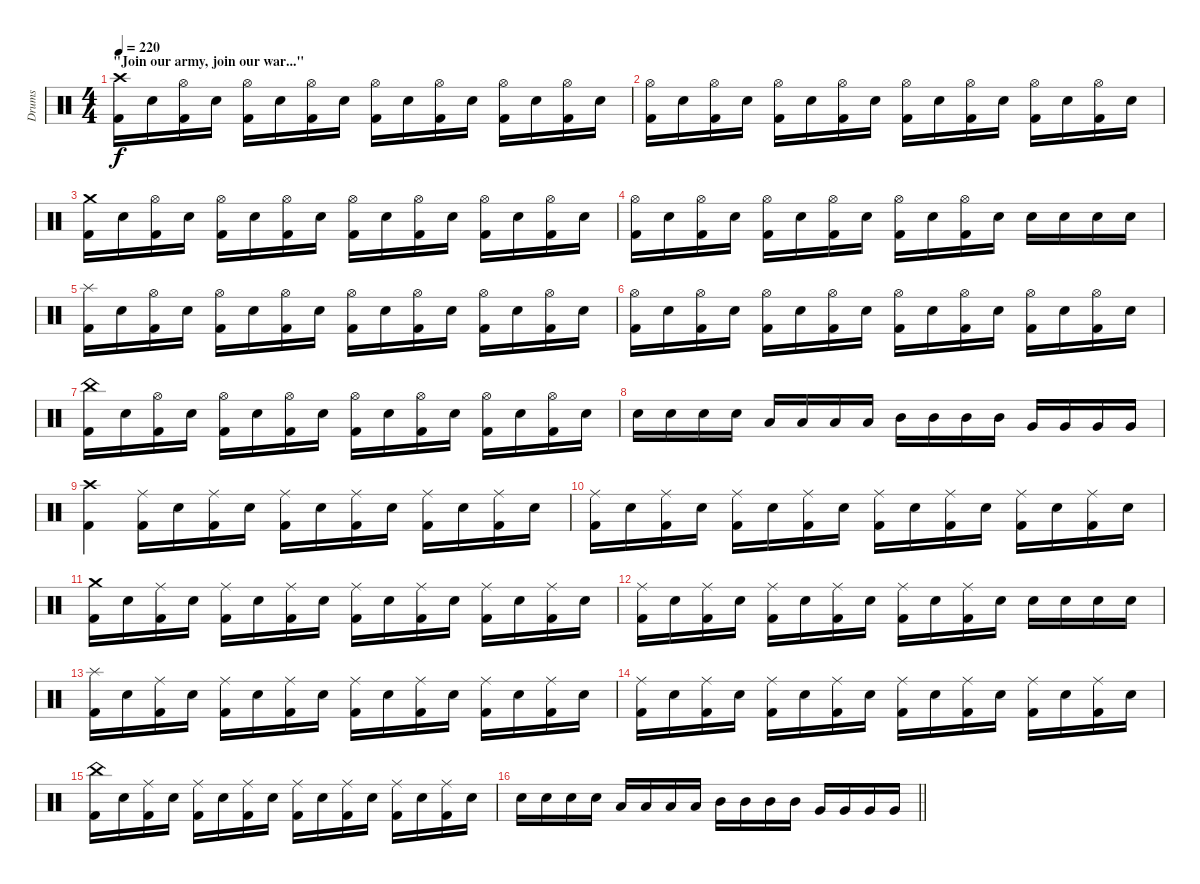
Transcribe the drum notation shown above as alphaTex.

\track ("Drums" "Drums") {instrument percussion}
\staff {score}
\articulation defaults
\ts (4 4)
\section ("" "\"Join our army, join our war...\"")
\tempo 220
\clef neutral
\ks c
("Crash high (hit)" "Kick (hit) 2").16{dy f} "Snare (hit) 2".16 ("Hi-Hat (open)" "Kick (hit) 2").16 "Snare (hit) 2".16 ("Hi-Hat (open)" "Kick (hit) 2").16 "Snare (hit) 2".16 ("Hi-Hat (open)" "Kick (hit) 2").16 "Snare (hit) 2".16 ("Hi-Hat (open)" "Kick (hit) 2").16 "Snare (hit) 2".16 ("Hi-Hat (open)" "Kick (hit) 2").16 "Snare (hit) 2".16 ("Hi-Hat (open)" "Kick (hit) 2").16 "Snare (hit) 2".16 ("Hi-Hat (open)" "Kick (hit) 2").16 "Snare (hit) 2".16 |
("Hi-Hat (open)" "Kick (hit) 2").16 "Snare (hit) 2".16 ("Hi-Hat (open)" "Kick (hit) 2").16 "Snare (hit) 2".16 ("Hi-Hat (open)" "Kick (hit) 2").16 "Snare (hit) 2".16 ("Hi-Hat (open)" "Kick (hit) 2").16 "Snare (hit) 2".16 ("Hi-Hat (open)" "Kick (hit) 2").16 "Snare (hit) 2".16 ("Hi-Hat (open)" "Kick (hit) 2").16 "Snare (hit) 2".16 ("Hi-Hat (open)" "Kick (hit) 2").16 "Snare (hit) 2".16 ("Hi-Hat (open)" "Kick (hit) 2").16 "Snare (hit) 2".16 |
("Crash medium (hit)" "Kick (hit) 2").16 "Snare (hit) 2".16 ("Hi-Hat (open)" "Kick (hit) 2").16 "Snare (hit) 2".16 ("Hi-Hat (open)" "Kick (hit) 2").16 "Snare (hit) 2".16 ("Hi-Hat (open)" "Kick (hit) 2").16 "Snare (hit) 2".16 ("Hi-Hat (open)" "Kick (hit) 2").16 "Snare (hit) 2".16 ("Hi-Hat (open)" "Kick (hit) 2").16 "Snare (hit) 2".16 ("Hi-Hat (open)" "Kick (hit) 2").16 "Snare (hit) 2".16 ("Hi-Hat (open)" "Kick (hit) 2").16 "Snare (hit) 2".16 |
("Hi-Hat (open)" "Kick (hit) 2").16 "Snare (hit) 2".16 ("Hi-Hat (open)" "Kick (hit) 2").16 "Snare (hit) 2".16 ("Hi-Hat (open)" "Kick (hit) 2").16 "Snare (hit) 2".16 ("Hi-Hat (open)" "Kick (hit) 2").16 "Snare (hit) 2".16 ("Hi-Hat (open)" "Kick (hit) 2").16 "Snare (hit) 2".16 ("Hi-Hat (open)" "Kick (hit) 2").16 "Snare (hit) 2".16 "Snare (hit) 2".16 "Snare (hit) 2".16 "Snare (hit) 2".16 "Snare (hit) 2".16 |
("Splash (hit)" "Kick (hit) 2").16 "Snare (hit) 2".16 ("Hi-Hat (open)" "Kick (hit) 2").16 "Snare (hit) 2".16 ("Hi-Hat (open)" "Kick (hit) 2").16 "Snare (hit) 2".16 ("Hi-Hat (open)" "Kick (hit) 2").16 "Snare (hit) 2".16 ("Hi-Hat (open)" "Kick (hit) 2").16 "Snare (hit) 2".16 ("Hi-Hat (open)" "Kick (hit) 2").16 "Snare (hit) 2".16 ("Hi-Hat (open)" "Kick (hit) 2").16 "Snare (hit) 2".16 ("Hi-Hat (open)" "Kick (hit) 2").16 "Snare (hit) 2".16 |
("Hi-Hat (open)" "Kick (hit) 2").16 "Snare (hit) 2".16 ("Hi-Hat (open)" "Kick (hit) 2").16 "Snare (hit) 2".16 ("Hi-Hat (open)" "Kick (hit) 2").16 "Snare (hit) 2".16 ("Hi-Hat (open)" "Kick (hit) 2").16 "Snare (hit) 2".16 ("Hi-Hat (open)" "Kick (hit) 2").16 "Snare (hit) 2".16 ("Hi-Hat (open)" "Kick (hit) 2").16 "Snare (hit) 2".16 ("Hi-Hat (open)" "Kick (hit) 2").16 "Snare (hit) 2".16 ("Hi-Hat (open)" "Kick (hit) 2").16 "Snare (hit) 2".16 |
("China (hit)" "Kick (hit) 2").16 "Snare (hit) 2".16 ("Hi-Hat (open)" "Kick (hit) 2").16 "Snare (hit) 2".16 ("Hi-Hat (open)" "Kick (hit) 2").16 "Snare (hit) 2".16 ("Hi-Hat (open)" "Kick (hit) 2").16 "Snare (hit) 2".16 ("Hi-Hat (open)" "Kick (hit) 2").16 "Snare (hit) 2".16 ("Hi-Hat (open)" "Kick (hit) 2").16 "Snare (hit) 2".16 ("Hi-Hat (open)" "Kick (hit) 2").16 "Snare (hit) 2".16 ("Hi-Hat (open)" "Kick (hit) 2").16 "Snare (hit) 2".16 |
"Snare (hit) 2".16 "Snare (hit) 2".16 "Snare (hit) 2".16 "Snare (hit) 2".16 "Low Tom (hit)".16 "Low Tom (hit)".16 "Low Tom (hit)".16 "Low Tom (hit)".16 "Mid Tom (hit)".16 "Mid Tom (hit)".16 "Mid Tom (hit)".16 "Mid Tom (hit)".16 "Very Low Tom (hit)".16 "Very Low Tom (hit)".16 "Very Low Tom (hit)".16 "Very Low Tom (hit)".16 |
("Crash high (hit)" "Kick (hit) 2").4 ("Ride (middle)" "Kick (hit) 2").16 "Snare (hit) 2".16 ("Ride (middle)" "Kick (hit) 2").16 "Snare (hit) 2".16 ("Ride (middle)" "Kick (hit) 2").16 "Snare (hit) 2".16 ("Ride (middle)" "Kick (hit) 2").16 "Snare (hit) 2".16 ("Ride (middle)" "Kick (hit) 2").16 "Snare (hit) 2".16 ("Ride (middle)" "Kick (hit) 2").16 "Snare (hit) 2".16 |
("Ride (middle)" "Kick (hit) 2").16 "Snare (hit) 2".16 ("Ride (middle)" "Kick (hit) 2").16 "Snare (hit) 2".16 ("Ride (middle)" "Kick (hit) 2").16 "Snare (hit) 2".16 ("Ride (middle)" "Kick (hit) 2").16 "Snare (hit) 2".16 ("Ride (middle)" "Kick (hit) 2").16 "Snare (hit) 2".16 ("Ride (middle)" "Kick (hit) 2").16 "Snare (hit) 2".16 ("Ride (middle)" "Kick (hit) 2").16 "Snare (hit) 2".16 ("Ride (middle)" "Kick (hit) 2").16 "Snare (hit) 2".16 |
("Crash medium (hit)" "Kick (hit) 2").16 "Snare (hit) 2".16 ("Ride (middle)" "Kick (hit) 2").16 "Snare (hit) 2".16 ("Ride (middle)" "Kick (hit) 2").16 "Snare (hit) 2".16 ("Ride (middle)" "Kick (hit) 2").16 "Snare (hit) 2".16 ("Ride (middle)" "Kick (hit) 2").16 "Snare (hit) 2".16 ("Ride (middle)" "Kick (hit) 2").16 "Snare (hit) 2".16 ("Ride (middle)" "Kick (hit) 2").16 "Snare (hit) 2".16 ("Ride (middle)" "Kick (hit) 2").16 "Snare (hit) 2".16 |
("Ride (middle)" "Kick (hit) 2").16 "Snare (hit) 2".16 ("Ride (middle)" "Kick (hit) 2").16 "Snare (hit) 2".16 ("Ride (middle)" "Kick (hit) 2").16 "Snare (hit) 2".16 ("Ride (middle)" "Kick (hit) 2").16 "Snare (hit) 2".16 ("Ride (middle)" "Kick (hit) 2").16 "Snare (hit) 2".16 ("Ride (middle)" "Kick (hit) 2").16 "Snare (hit) 2".16 "Snare (hit) 2".16 "Snare (hit) 2".16 "Snare (hit) 2".16 "Snare (hit) 2".16 |
("Splash (hit)" "Kick (hit) 2").16 "Snare (hit) 2".16 ("Ride (middle)" "Kick (hit) 2").16 "Snare (hit) 2".16 ("Ride (middle)" "Kick (hit) 2").16 "Snare (hit) 2".16 ("Ride (middle)" "Kick (hit) 2").16 "Snare (hit) 2".16 ("Ride (middle)" "Kick (hit) 2").16 "Snare (hit) 2".16 ("Ride (middle)" "Kick (hit) 2").16 "Snare (hit) 2".16 ("Ride (middle)" "Kick (hit) 2").16 "Snare (hit) 2".16 ("Ride (middle)" "Kick (hit) 2").16 "Snare (hit) 2".16 |
("Ride (middle)" "Kick (hit) 2").16 "Snare (hit) 2".16 ("Ride (middle)" "Kick (hit) 2").16 "Snare (hit) 2".16 ("Ride (middle)" "Kick (hit) 2").16 "Snare (hit) 2".16 ("Ride (middle)" "Kick (hit) 2").16 "Snare (hit) 2".16 ("Ride (middle)" "Kick (hit) 2").16 "Snare (hit) 2".16 ("Ride (middle)" "Kick (hit) 2").16 "Snare (hit) 2".16 ("Ride (middle)" "Kick (hit) 2").16 "Snare (hit) 2".16 ("Ride (middle)" "Kick (hit) 2").16 "Snare (hit) 2".16 |
("China (hit)" "Kick (hit) 2").16 "Snare (hit) 2".16 ("Ride (middle)" "Kick (hit) 2").16 "Snare (hit) 2".16 ("Ride (middle)" "Kick (hit) 2").16 "Snare (hit) 2".16 ("Ride (middle)" "Kick (hit) 2").16 "Snare (hit) 2".16 ("Ride (middle)" "Kick (hit) 2").16 "Snare (hit) 2".16 ("Ride (middle)" "Kick (hit) 2").16 "Snare (hit) 2".16 ("Ride (middle)" "Kick (hit) 2").16 "Snare (hit) 2".16 ("Ride (middle)" "Kick (hit) 2").16 "Snare (hit) 2".16 |
\barLineRight lightlight "Snare (hit) 2".16 "Snare (hit) 2".16 "Snare (hit) 2".16 "Snare (hit) 2".16 "Low Tom (hit)".16 "Low Tom (hit)".16 "Low Tom (hit)".16 "Low Tom (hit)".16 "Mid Tom (hit)".16 "Mid Tom (hit)".16 "Mid Tom (hit)".16 "Mid Tom (hit)".16 "Very Low Tom (hit)".16 "Very Low Tom (hit)".16 "Very Low Tom (hit)".16 "Very Low Tom (hit)".16
